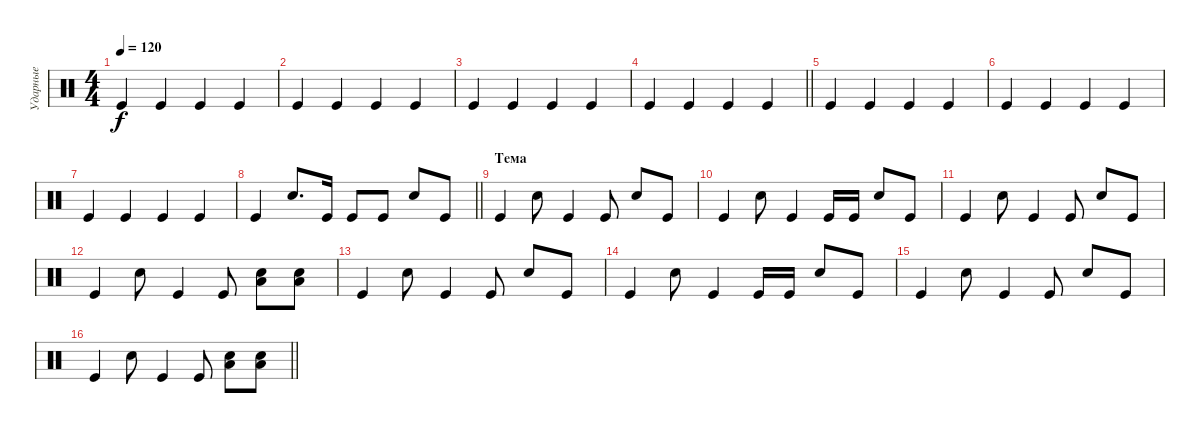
\track ("Ударные" "Ударные") {instrument percussion}
\staff {score}
\articulation defaults
\ts (4 4)
\tempo 120
\clef neutral
\ks c "Kick (hit)".4{dy f} "Kick (hit)".4 "Kick (hit)".4 "Kick (hit)".4
|
"Kick (hit)".4 "Kick (hit)".4 "Kick (hit)".4 "Kick (hit)".4 |
"Kick (hit)".4 "Kick (hit)".4 "Kick (hit)".4 "Kick (hit)".4 |
\barLineRight lightlight "Kick (hit)".4 "Kick (hit)".4 "Kick (hit)".4 "Kick (hit)".4
|
"Kick (hit)".4 "Kick (hit)".4 "Kick (hit)".4 "Kick (hit)".4 |
"Kick (hit)".4 "Kick (hit)".4 "Kick (hit)".4 "Kick (hit)".4 |
"Kick (hit)".4 "Kick (hit)".4 "Kick (hit)".4 "Kick (hit)".4 |
\barLineRight lightlight "Kick (hit)".4 "Snare (hit) 2".8{d} "Kick (hit)".16 "Kick (hit)".8 "Kick (hit)".8 "Snare (hit) 2".8 "Kick (hit)".8
|
\section ("" "Тема")
"Kick (hit)".4 "Snare (hit) 2".8 "Kick (hit)".4 "Kick (hit)".8 "Snare (hit) 2".8 "Kick (hit)".8 |
"Kick (hit)".4 "Snare (hit) 2".8 "Kick (hit)".4 "Kick (hit)".16 "Kick (hit)".16 "Snare (hit) 2".8 "Kick (hit)".8 |
"Kick (hit)".4 "Snare (hit) 2".8 "Kick (hit)".4 "Kick (hit)".8 "Snare (hit) 2".8 "Kick (hit)".8 |
"Kick (hit)".4 "Snare (hit) 2".8 "Kick (hit)".4 "Kick (hit)".8 ("Snare (hit) 2" "Low Floor Tom (hit)").8 ("Snare (hit) 2" "Low Floor Tom (hit)").8 |
"Kick (hit)".4 "Snare (hit) 2".8 "Kick (hit)".4 "Kick (hit)".8 "Snare (hit) 2".8 "Kick (hit)".8 |
"Kick (hit)".4 "Snare (hit) 2".8 "Kick (hit)".4 "Kick (hit)".16 "Kick (hit)".16 "Snare (hit) 2".8 "Kick (hit)".8 |
"Kick (hit)".4 "Snare (hit) 2".8 "Kick (hit)".4 "Kick (hit)".8 "Snare (hit) 2".8 "Kick (hit)".8 |
\barLineRight lightlight "Kick (hit)".4 "Snare (hit) 2".8 "Kick (hit)".4 "Kick (hit)".8
("Snare (hit) 2" "Low Floor Tom (hit)").8 ("Snare (hit) 2" "Low Floor Tom (hit)").8
